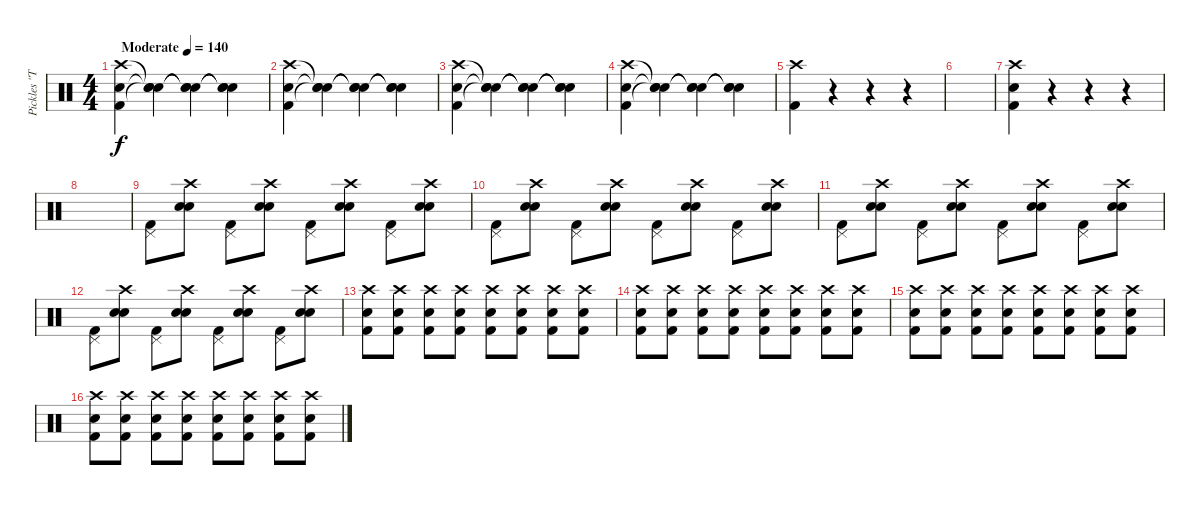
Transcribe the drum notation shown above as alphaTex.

\track ("Pickles \"The Drummer\"" "Pickles \"T") {instrument percussion}
\staff {score}
\articulation defaults
\ts (4 4)
\tempo (140 "Moderate")
\clef neutral
\ks c
("Crash high (hit)" "Electric Snare (hit)" "Kick (hit) 2").4{dy f} ("Snare (hit)"{t} "Snare (hit)"{t} "Snare (hit)"{t}).4 ("Snare (hit)"{t} "Snare (hit)"{t} "Snare (hit)"{t}).4 ("Snare (hit)"{t} "Snare (hit)"{t} "Snare (hit)"{t}).4 |
("Crash high (hit)" "Electric Snare (hit)" "Kick (hit) 2").4 ("Snare (hit)"{t} "Snare (hit)"{t} "Snare (hit)"{t}).4 ("Snare (hit)"{t} "Snare (hit)"{t} "Snare (hit)"{t}).4 ("Snare (hit)"{t} "Snare (hit)"{t} "Snare (hit)"{t}).4 |
("Crash high (hit)" "Electric Snare (hit)" "Kick (hit) 2").4 ("Snare (hit)"{t} "Snare (hit)"{t} "Snare (hit)"{t}).4 ("Snare (hit)"{t} "Snare (hit)"{t} "Snare (hit)"{t}).4 ("Snare (hit)"{t} "Snare (hit)"{t} "Snare (hit)"{t}).4 |
("Crash high (hit)" "Electric Snare (hit)" "Kick (hit) 2").4 ("Snare (hit)"{t} "Snare (hit)"{t} "Snare (hit)"{t}).4 ("Snare (hit)"{t} "Snare (hit)"{t} "Snare (hit)"{t}).4 ("Snare (hit)"{t} "Snare (hit)"{t} "Snare (hit)"{t}).4 |
("Crash high (hit)" "Kick (hit) 2").4 r.4 r.4 r.4 |
|
("Crash high (hit)" "Electric Snare (hit)" "Kick (hit) 2").4 r.4 r.4 r.4 |
|
("Pedal Hi-Hat (hit)" "Kick (hit) 2").8 ("Crash high (hit)" "Snare (hit) 2" "Snare (hit)").8 ("Pedal Hi-Hat (hit)" "Kick (hit) 2").8 ("Crash high (hit)" "Snare (hit) 2" "Snare (hit)").8 ("Pedal Hi-Hat (hit)" "Kick (hit) 2").8 ("Crash high (hit)" "Snare (hit) 2" "Snare (hit)").8 ("Pedal Hi-Hat (hit)" "Kick (hit) 2").8 ("Crash high (hit)" "Snare (hit) 2" "Snare (hit)").8 |
("Pedal Hi-Hat (hit)" "Kick (hit) 2").8 ("Crash high (hit)" "Snare (hit) 2" "Snare (hit)").8 ("Pedal Hi-Hat (hit)" "Kick (hit) 2").8 ("Crash high (hit)" "Snare (hit) 2" "Snare (hit)").8 ("Pedal Hi-Hat (hit)" "Kick (hit) 2").8 ("Crash high (hit)" "Snare (hit) 2" "Snare (hit)").8 ("Pedal Hi-Hat (hit)" "Kick (hit) 2").8 ("Crash high (hit)" "Snare (hit) 2" "Snare (hit)").8 |
("Pedal Hi-Hat (hit)" "Kick (hit) 2").8 ("Crash high (hit)" "Snare (hit) 2" "Snare (hit)").8 ("Pedal Hi-Hat (hit)" "Kick (hit) 2").8 ("Crash high (hit)" "Snare (hit) 2" "Snare (hit)").8 ("Pedal Hi-Hat (hit)" "Kick (hit) 2").8 ("Crash high (hit)" "Snare (hit) 2" "Snare (hit)").8 ("Pedal Hi-Hat (hit)" "Kick (hit) 2").8 ("Crash high (hit)" "Snare (hit) 2" "Snare (hit)").8 |
("Pedal Hi-Hat (hit)" "Kick (hit) 2").8 ("Crash high (hit)" "Snare (hit) 2" "Snare (hit)").8 ("Pedal Hi-Hat (hit)" "Kick (hit) 2").8 ("Crash high (hit)" "Snare (hit) 2" "Snare (hit)").8 ("Pedal Hi-Hat (hit)" "Kick (hit) 2").8 ("Crash high (hit)" "Snare (hit) 2" "Snare (hit)").8 ("Pedal Hi-Hat (hit)" "Kick (hit) 2").8 ("Crash high (hit)" "Snare (hit) 2" "Snare (hit)").8 |
("Crash high (hit)" "Electric Snare (hit)" "Kick (hit) 2").8 ("Crash high (hit)" "Electric Snare (hit)" "Kick (hit) 2").8 ("Crash high (hit)" "Electric Snare (hit)" "Kick (hit) 2").8 ("Crash high (hit)" "Electric Snare (hit)" "Kick (hit) 2").8 ("Crash high (hit)" "Electric Snare (hit)" "Kick (hit) 2").8 ("Crash high (hit)" "Electric Snare (hit)" "Kick (hit) 2").8 ("Crash high (hit)" "Electric Snare (hit)" "Kick (hit) 2").8 ("Crash high (hit)" "Electric Snare (hit)" "Kick (hit) 2").8 |
("Crash high (hit)" "Electric Snare (hit)" "Kick (hit) 2").8 ("Crash high (hit)" "Electric Snare (hit)" "Kick (hit) 2").8 ("Crash high (hit)" "Electric Snare (hit)" "Kick (hit) 2").8 ("Crash high (hit)" "Electric Snare (hit)" "Kick (hit) 2").8 ("Crash high (hit)" "Electric Snare (hit)" "Kick (hit) 2").8 ("Crash high (hit)" "Electric Snare (hit)" "Kick (hit) 2").8 ("Crash high (hit)" "Electric Snare (hit)" "Kick (hit) 2").8 ("Crash high (hit)" "Electric Snare (hit)" "Kick (hit) 2").8 |
("Crash high (hit)" "Electric Snare (hit)" "Kick (hit) 2").8 ("Crash high (hit)" "Electric Snare (hit)" "Kick (hit) 2").8 ("Crash high (hit)" "Electric Snare (hit)" "Kick (hit) 2").8 ("Crash high (hit)" "Electric Snare (hit)" "Kick (hit) 2").8 ("Crash high (hit)" "Electric Snare (hit)" "Kick (hit) 2").8 ("Crash high (hit)" "Electric Snare (hit)" "Kick (hit) 2").8 ("Crash high (hit)" "Electric Snare (hit)" "Kick (hit) 2").8 ("Crash high (hit)" "Electric Snare (hit)" "Kick (hit) 2").8 |
("Crash high (hit)" "Electric Snare (hit)" "Kick (hit) 2").8 ("Crash high (hit)" "Electric Snare (hit)" "Kick (hit) 2").8 ("Crash high (hit)" "Electric Snare (hit)" "Kick (hit) 2").8 ("Crash high (hit)" "Electric Snare (hit)" "Kick (hit) 2").8 ("Crash high (hit)" "Electric Snare (hit)" "Kick (hit) 2").8 ("Crash high (hit)" "Electric Snare (hit)" "Kick (hit) 2").8 ("Crash high (hit)" "Electric Snare (hit)" "Kick (hit) 2").8 ("Crash high (hit)" "Electric Snare (hit)" "Kick (hit) 2").8
